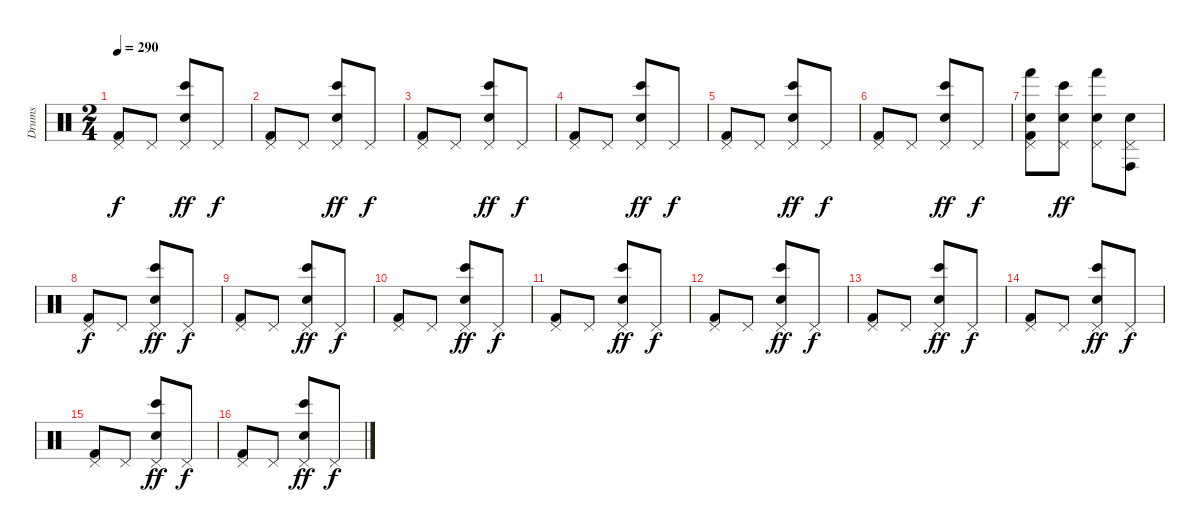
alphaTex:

\track ("Drums" "Drums") {instrument percussion}
\staff {score}
\articulation defaults
\ts (2 4)
\tempo 290
\clef neutral
\ks c
("Pedal Hi-Hat (hit)" "Kick (hit) 2").8{dy f} "Pedal Hi-Hat (hit)".8 ("Pedal Hi-Hat (hit)" "Bongo High (hit)" "Electric Snare (hit)").8{dy ff} "Pedal Hi-Hat (hit)".8{dy f} |
("Pedal Hi-Hat (hit)" "Kick (hit) 2").8 "Pedal Hi-Hat (hit)".8 ("Pedal Hi-Hat (hit)" "Bongo High (hit)" "Electric Snare (hit)").8{dy ff} "Pedal Hi-Hat (hit)".8{dy f} |
("Pedal Hi-Hat (hit)" "Kick (hit) 2").8 "Pedal Hi-Hat (hit)".8 ("Pedal Hi-Hat (hit)" "Bongo High (hit)" "Electric Snare (hit)").8{dy ff} "Pedal Hi-Hat (hit)".8{dy f} |
("Pedal Hi-Hat (hit)" "Kick (hit) 2").8 "Pedal Hi-Hat (hit)".8 ("Pedal Hi-Hat (hit)" "Bongo High (hit)" "Electric Snare (hit)").8{dy ff} "Pedal Hi-Hat (hit)".8{dy f} |
("Pedal Hi-Hat (hit)" "Kick (hit) 2").8 "Pedal Hi-Hat (hit)".8 ("Pedal Hi-Hat (hit)" "Bongo High (hit)" "Electric Snare (hit)").8{dy ff} "Pedal Hi-Hat (hit)".8{dy f} |
("Pedal Hi-Hat (hit)" "Kick (hit) 2").8 "Pedal Hi-Hat (hit)".8 ("Pedal Hi-Hat (hit)" "Bongo High (hit)" "Electric Snare (hit)").8{dy ff} "Pedal Hi-Hat (hit)".8{dy f} |
("Pedal Hi-Hat (hit)" "Hand (hit)" "Electric Snare (hit)" "Kick (hit) 2").8 ("Pedal Hi-Hat (hit)" "Bongo High (hit)" "Electric Snare (hit)").8{dy ff} ("Pedal Hi-Hat (hit)" "Hand (hit)" "Electric Snare (hit)").8 ("Pedal Hi-Hat (hit)" "Conga high (hit)" "Electric Snare (hit)").8 |
("Pedal Hi-Hat (hit)" "Kick (hit) 2").8{dy f} "Pedal Hi-Hat (hit)".8 ("Pedal Hi-Hat (hit)" "Bongo High (hit)" "Electric Snare (hit)").8{dy ff} "Pedal Hi-Hat (hit)".8{dy f} |
("Pedal Hi-Hat (hit)" "Kick (hit) 2").8 "Pedal Hi-Hat (hit)".8 ("Pedal Hi-Hat (hit)" "Bongo High (hit)" "Electric Snare (hit)").8{dy ff} "Pedal Hi-Hat (hit)".8{dy f} |
("Pedal Hi-Hat (hit)" "Kick (hit) 2").8 "Pedal Hi-Hat (hit)".8 ("Pedal Hi-Hat (hit)" "Bongo High (hit)" "Electric Snare (hit)").8{dy ff} "Pedal Hi-Hat (hit)".8{dy f} |
("Pedal Hi-Hat (hit)" "Kick (hit) 2").8 "Pedal Hi-Hat (hit)".8 ("Pedal Hi-Hat (hit)" "Bongo High (hit)" "Electric Snare (hit)").8{dy ff} "Pedal Hi-Hat (hit)".8{dy f} |
("Pedal Hi-Hat (hit)" "Kick (hit) 2").8 "Pedal Hi-Hat (hit)".8 ("Pedal Hi-Hat (hit)" "Bongo High (hit)" "Electric Snare (hit)").8{dy ff} "Pedal Hi-Hat (hit)".8{dy f} |
("Pedal Hi-Hat (hit)" "Kick (hit) 2").8 "Pedal Hi-Hat (hit)".8 ("Pedal Hi-Hat (hit)" "Bongo High (hit)" "Electric Snare (hit)").8{dy ff} "Pedal Hi-Hat (hit)".8{dy f} |
("Pedal Hi-Hat (hit)" "Kick (hit) 2").8 "Pedal Hi-Hat (hit)".8 ("Pedal Hi-Hat (hit)" "Bongo High (hit)" "Electric Snare (hit)").8{dy ff} "Pedal Hi-Hat (hit)".8{dy f} |
("Pedal Hi-Hat (hit)" "Kick (hit) 2").8 "Pedal Hi-Hat (hit)".8 ("Pedal Hi-Hat (hit)" "Bongo High (hit)" "Electric Snare (hit)").8{dy ff} "Pedal Hi-Hat (hit)".8{dy f} |
("Pedal Hi-Hat (hit)" "Kick (hit) 2").8 "Pedal Hi-Hat (hit)".8 ("Pedal Hi-Hat (hit)" "Bongo High (hit)" "Electric Snare (hit)").8{dy ff} "Pedal Hi-Hat (hit)".8{dy f}
